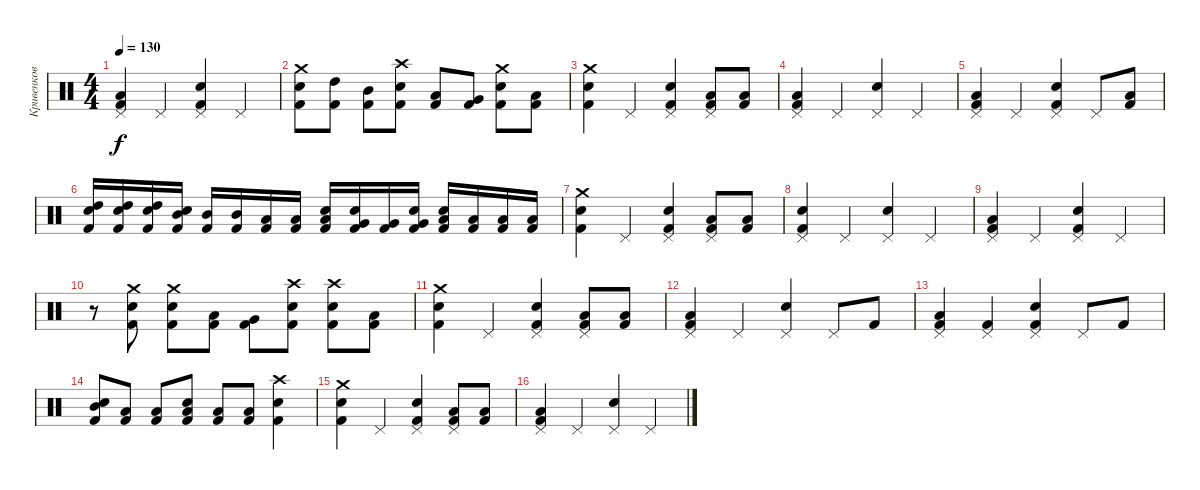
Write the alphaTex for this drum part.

\track ("Кривенков Дмитрий" "Кривенков ") {instrument percussion}
\staff {score}
\articulation defaults
\ts (4 4)
\tempo 130
\clef neutral
\ks c
("Kick (hit) 2" "Pedal Hi-Hat (hit)" "Low Floor Tom (hit)").4{dy f} "Pedal Hi-Hat (hit)".4 ("Kick (hit) 2" "Pedal Hi-Hat (hit)" "Electric Snare (hit)").4 "Pedal Hi-Hat (hit)".4 |
("Crash medium (hit)" "Electric Snare (hit)" "Kick (hit) 2").8 ("Kick (hit) 2" "High Tom (hit)").8 ("Mid Tom (hit)" "Kick (hit) 2").8 ("Crash high (hit)" "Electric Snare (hit)" "Kick (hit) 2").8 ("Kick (hit) 2" "Low Tom (hit)").8 ("Kick (hit) 2" "Very Low Tom (hit)").8 ("Crash medium (hit)" "Electric Snare (hit)" "Kick (hit) 2").8 ("Kick (hit) 2" "Low Floor Tom (hit)").8 |
("Kick (hit) 2" "Electric Snare (hit)" "Crash medium (hit)").4 "Pedal Hi-Hat (hit)".4 ("Pedal Hi-Hat (hit)" "Kick (hit) 2" "Electric Snare (hit)").4 ("Kick (hit) 2" "Pedal Hi-Hat (hit)" "Low Floor Tom (hit)").8 ("Low Floor Tom (hit)" "Kick (hit) 2").8 |
("Kick (hit) 2" "Pedal Hi-Hat (hit)" "Low Floor Tom (hit)").4 "Pedal Hi-Hat (hit)".4 ("Pedal Hi-Hat (hit)" "Electric Snare (hit)").4 "Pedal Hi-Hat (hit)".4 |
("Kick (hit) 2" "Pedal Hi-Hat (hit)" "Low Floor Tom (hit)").4 "Pedal Hi-Hat (hit)".4 ("Kick (hit) 2" "Pedal Hi-Hat (hit)" "Electric Snare (hit)").4 "Pedal Hi-Hat (hit)".8 ("Kick (hit) 2" "Low Floor Tom (hit)").8 |
("High Tom (hit)" "Electric Snare (hit)" "Kick (hit) 2").16 ("High Tom (hit)" "Electric Snare (hit)" "Kick (hit) 2").16 ("High Tom (hit)" "Electric Snare (hit)" "Kick (hit) 2").16 ("Mid Tom (hit)" "Electric Snare (hit)" "Kick (hit) 2").16 ("Mid Tom (hit)" "Kick (hit) 2").16 ("Mid Tom (hit)" "Kick (hit) 2").16 ("Low Tom (hit)" "Kick (hit) 2").16 ("Low Tom (hit)" "Kick (hit) 2").16 ("Low Tom (hit)" "Electric Snare (hit)" "Kick (hit) 2").16 ("Very Low Tom (hit)" "Electric Snare (hit)" "Kick (hit) 2").16 ("Very Low Tom (hit)" "Kick (hit) 2").16 ("Very Low Tom (hit)" "Electric Snare (hit)" "Kick (hit) 2").16 ("Low Floor Tom (hit)" "Electric Snare (hit)" "Kick (hit) 2").16 ("Low Floor Tom (hit)" "Kick (hit) 2").16 ("Low Floor Tom (hit)" "Kick (hit) 2").16 ("Low Floor Tom (hit)" "Kick (hit) 2").16 |
("Kick (hit) 2" "Electric Snare (hit)" "Crash medium (hit)").4 "Pedal Hi-Hat (hit)".4 ("Pedal Hi-Hat (hit)" "Kick (hit) 2" "Electric Snare (hit)").4 ("Kick (hit) 2" "Pedal Hi-Hat (hit)" "Low Floor Tom (hit)").8 ("Low Floor Tom (hit)" "Kick (hit) 2").8 |
("Electric Snare (hit)" "Kick (hit) 2" "Pedal Hi-Hat (hit)").4 "Pedal Hi-Hat (hit)".4 ("Pedal Hi-Hat (hit)" "Electric Snare (hit)").4 "Pedal Hi-Hat (hit)".4 |
("Kick (hit) 2" "Pedal Hi-Hat (hit)" "Low Floor Tom (hit)").4 "Pedal Hi-Hat (hit)".4 ("Kick (hit) 2" "Pedal Hi-Hat (hit)" "Electric Snare (hit)").4 "Pedal Hi-Hat (hit)".4 |
r.8 ("Crash medium (hit)" "Electric Snare (hit)" "Kick (hit) 2").8 ("Crash medium (hit)" "Electric Snare (hit)" "Kick (hit) 2").8 ("Kick (hit) 2" "Low Tom (hit)").8 ("Kick (hit) 2" "Very Low Tom (hit)").8 ("Crash high (hit)" "Electric Snare (hit)" "Kick (hit) 2").8 ("Crash high (hit)" "Electric Snare (hit)" "Kick (hit) 2").8 ("Low Floor Tom (hit)" "Kick (hit) 2").8 |
("Kick (hit) 2" "Electric Snare (hit)" "Crash medium (hit)").4 "Pedal Hi-Hat (hit)".4 ("Pedal Hi-Hat (hit)" "Kick (hit) 2" "Electric Snare (hit)").4 ("Kick (hit) 2" "Pedal Hi-Hat (hit)" "Low Floor Tom (hit)").8 ("Low Floor Tom (hit)" "Kick (hit) 2").8 |
("Kick (hit) 2" "Pedal Hi-Hat (hit)" "Low Floor Tom (hit)").4 "Pedal Hi-Hat (hit)".4 ("Pedal Hi-Hat (hit)" "Electric Snare (hit)").4 "Pedal Hi-Hat (hit)".8 "Kick (hit) 2".8 |
("Kick (hit) 2" "Pedal Hi-Hat (hit)" "Low Floor Tom (hit)").4 ("Kick (hit) 2" "Pedal Hi-Hat (hit)").4 ("Kick (hit) 2" "Pedal Hi-Hat (hit)" "Electric Snare (hit)").4 "Pedal Hi-Hat (hit)".8 "Kick (hit) 2".8 |
("Electric Snare (hit)" "Mid Tom (hit)" "Kick (hit) 2").8 ("Low Floor Tom (hit)" "Kick (hit) 2").8 ("Low Floor Tom (hit)" "Kick (hit) 2").8 ("Electric Snare (hit)" "Low Tom (hit)" "Kick (hit) 2").8 ("Low Floor Tom (hit)" "Kick (hit) 2").8 ("Low Floor Tom (hit)" "Kick (hit) 2").8 ("Electric Snare (hit)" "Kick (hit) 2" "Crash high (hit)").4 |
("Kick (hit) 2" "Electric Snare (hit)" "Crash medium (hit)").4 "Pedal Hi-Hat (hit)".4 ("Pedal Hi-Hat (hit)" "Kick (hit) 2" "Electric Snare (hit)").4 ("Kick (hit) 2" "Pedal Hi-Hat (hit)" "Low Floor Tom (hit)").8 ("Low Floor Tom (hit)" "Kick (hit) 2").8 |
("Kick (hit) 2" "Pedal Hi-Hat (hit)" "Low Floor Tom (hit)").4 "Pedal Hi-Hat (hit)".4 ("Pedal Hi-Hat (hit)" "Electric Snare (hit)").4 "Pedal Hi-Hat (hit)".4
